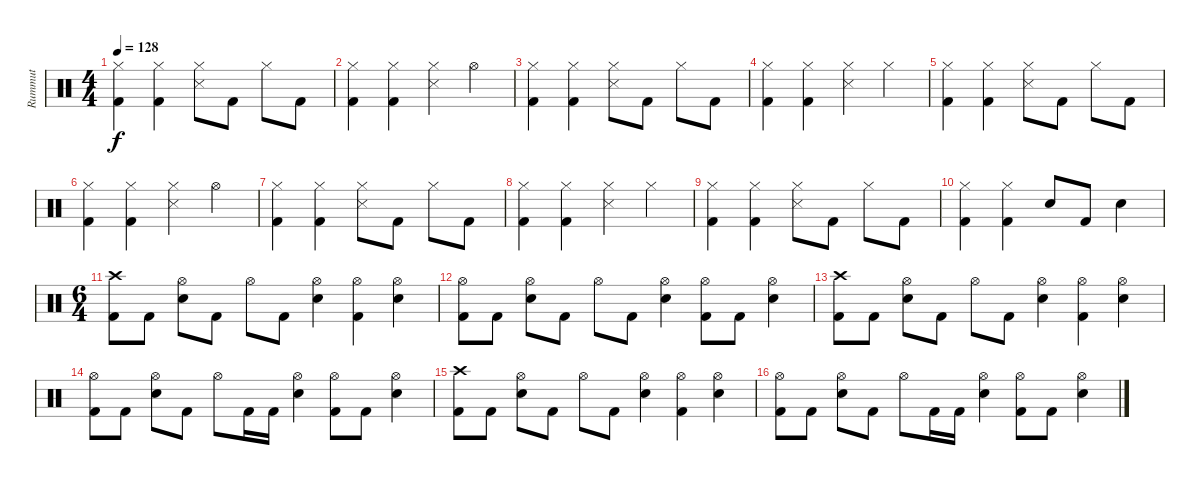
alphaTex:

\track ("Rummut" "Rummut") {instrument percussion}
\staff {score}
\articulation defaults
\ts (4 4)
\tempo 128
\clef neutral
\ks aminor
("Hi-Hat (closed)" "Kick (hit) 2").4{dy f} ("Hi-Hat (closed)" "Kick (hit) 2").4 ("Hi-Hat (closed)" "Snare (side stick) 3").8 "Kick (hit) 2".8 "Hi-Hat (closed)".8 "Kick (hit) 2".8 |
("Hi-Hat (closed)" "Kick (hit) 2").4 ("Hi-Hat (closed)" "Kick (hit) 2").4 ("Hi-Hat (closed)" "Snare (side stick) 3").4 "Hi-Hat (open)".4 |
("Hi-Hat (closed)" "Kick (hit) 2").4 ("Hi-Hat (closed)" "Kick (hit) 2").4 ("Hi-Hat (closed)" "Snare (side stick) 3").8 "Kick (hit) 2".8 "Hi-Hat (closed)".8 "Kick (hit) 2".8 |
("Hi-Hat (closed)" "Kick (hit) 2").4 ("Hi-Hat (closed)" "Kick (hit) 2").4 ("Hi-Hat (closed)" "Snare (side stick) 3").4 "Hi-Hat (closed)".4 |
("Hi-Hat (closed)" "Kick (hit) 2").4 ("Hi-Hat (closed)" "Kick (hit) 2").4 ("Hi-Hat (closed)" "Snare (side stick) 3").8 "Kick (hit) 2".8 "Hi-Hat (closed)".8 "Kick (hit) 2".8 |
("Hi-Hat (closed)" "Kick (hit) 2").4 ("Hi-Hat (closed)" "Kick (hit) 2").4 ("Hi-Hat (closed)" "Snare (side stick) 3").4 "Hi-Hat (open)".4 |
("Hi-Hat (closed)" "Kick (hit) 2").4 ("Hi-Hat (closed)" "Kick (hit) 2").4 ("Hi-Hat (closed)" "Snare (side stick) 3").8 "Kick (hit) 2".8 "Hi-Hat (closed)".8 "Kick (hit) 2".8 |
("Hi-Hat (closed)" "Kick (hit) 2").4 ("Hi-Hat (closed)" "Kick (hit) 2").4 ("Hi-Hat (closed)" "Snare (side stick) 3").4 "Hi-Hat (closed)".4 |
("Hi-Hat (closed)" "Kick (hit) 2").4 ("Hi-Hat (closed)" "Kick (hit) 2").4 ("Hi-Hat (closed)" "Snare (side stick) 3").8 "Kick (hit) 2".8 "Hi-Hat (closed)".8 "Kick (hit) 2".8 |
("Hi-Hat (closed)" "Kick (hit) 2").4 ("Hi-Hat (closed)" "Kick (hit) 2").4 "Electric Snare (hit)".8 "Kick (hit) 2".8 "Electric Snare (hit)".4 |
\ts (6 4)
("Crash high (hit)" "Kick (hit) 2").8 "Kick (hit) 2".8 ("Hi-Hat (open)" "Electric Snare (hit)").8 "Kick (hit) 2".8 "Hi-Hat (open)".8 "Kick (hit) 2".8 ("Hi-Hat (open)" "Electric Snare (hit)").4 ("Hi-Hat (open)" "Kick (hit) 2").4 ("Hi-Hat (open)" "Electric Snare (hit)").4 |
("Hi-Hat (open)" "Kick (hit) 2").8 "Kick (hit) 2".8 ("Hi-Hat (open)" "Electric Snare (hit)").8 "Kick (hit) 2".8 "Hi-Hat (open)".8 "Kick (hit) 2".8 ("Hi-Hat (open)" "Electric Snare (hit)").4 ("Hi-Hat (open)" "Kick (hit) 2").8 "Kick (hit) 2".8 ("Hi-Hat (open)" "Electric Snare (hit)").4 |
("Crash high (hit)" "Kick (hit) 2").8 "Kick (hit) 2".8 ("Hi-Hat (open)" "Electric Snare (hit)").8 "Kick (hit) 2".8 "Hi-Hat (open)".8 "Kick (hit) 2".8 ("Hi-Hat (open)" "Electric Snare (hit)").4 ("Hi-Hat (open)" "Kick (hit) 2").4 ("Hi-Hat (open)" "Electric Snare (hit)").4 |
("Hi-Hat (open)" "Kick (hit) 2").8 "Kick (hit) 2".8 ("Hi-Hat (open)" "Electric Snare (hit)").8 "Kick (hit) 2".8 "Hi-Hat (open)".8 "Kick (hit) 2".16 "Kick (hit) 2".16 ("Hi-Hat (open)" "Electric Snare (hit)").4 ("Hi-Hat (open)" "Kick (hit) 2").8 "Kick (hit) 2".8 ("Hi-Hat (open)" "Electric Snare (hit)").4 |
("Crash high (hit)" "Kick (hit) 2").8 "Kick (hit) 2".8 ("Hi-Hat (open)" "Electric Snare (hit)").8 "Kick (hit) 2".8 "Hi-Hat (open)".8 "Kick (hit) 2".8 ("Hi-Hat (open)" "Electric Snare (hit)").4 ("Hi-Hat (open)" "Kick (hit) 2").4 ("Hi-Hat (open)" "Electric Snare (hit)").4 |
("Hi-Hat (open)" "Kick (hit) 2").8 "Kick (hit) 2".8 ("Hi-Hat (open)" "Electric Snare (hit)").8 "Kick (hit) 2".8 "Hi-Hat (open)".8 "Kick (hit) 2".16 "Kick (hit) 2".16 ("Hi-Hat (open)" "Electric Snare (hit)").4 ("Hi-Hat (open)" "Kick (hit) 2").8 "Kick (hit) 2".8 ("Hi-Hat (open)" "Electric Snare (hit)").4
